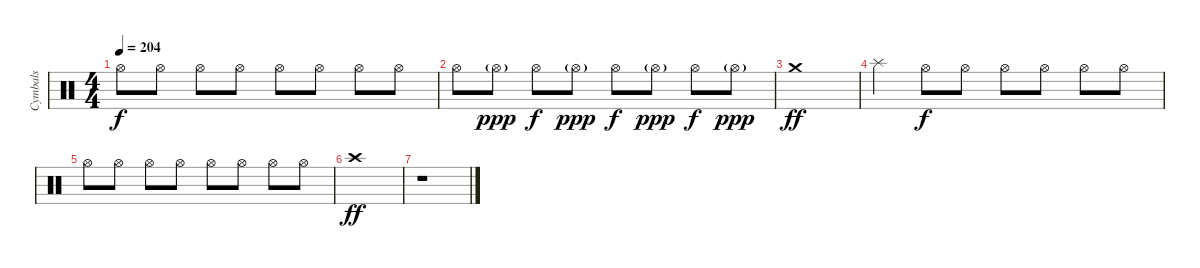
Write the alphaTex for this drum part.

\track ("Cymbals" "Cymbals") {instrument percussion}
\staff {score}
\articulation defaults
\ts (4 4)
\tempo 204
\clef neutral
\ks c "Hi-Hat (open)".8{dy f} "Hi-Hat (open)".8 "Hi-Hat (open)".8 "Hi-Hat (open)".8 "Hi-Hat (open)".8 "Hi-Hat (open)".8 "Hi-Hat (open)".8 "Hi-Hat (open)".8
|
"Hi-Hat (open)".8 "Hi-Hat (open)"{g}.8{dy ppp} "Hi-Hat (open)".8{dy f} "Hi-Hat (open)"{g}.8{dy ppp} "Hi-Hat (open)".8{dy f} "Hi-Hat (open)"{g}.8{dy ppp} "Hi-Hat (open)".8{dy f} "Hi-Hat (open)"{g}.8{dy ppp} |
"Crash medium (hit)".1{dy ff} |
"Splash (hit)".4 "Hi-Hat (open)".8{dy f} "Hi-Hat (open)".8 "Hi-Hat (open)".8 "Hi-Hat (open)".8 "Hi-Hat (open)".8 "Hi-Hat (open)".8 |
"Hi-Hat (open)".8 "Hi-Hat (open)".8 "Hi-Hat (open)".8 "Hi-Hat (open)".8 "Hi-Hat (open)".8 "Hi-Hat (open)".8 "Hi-Hat (open)".8 "Hi-Hat (open)".8 |
"Crash high (hit)".1{dy ff} |
r.1
